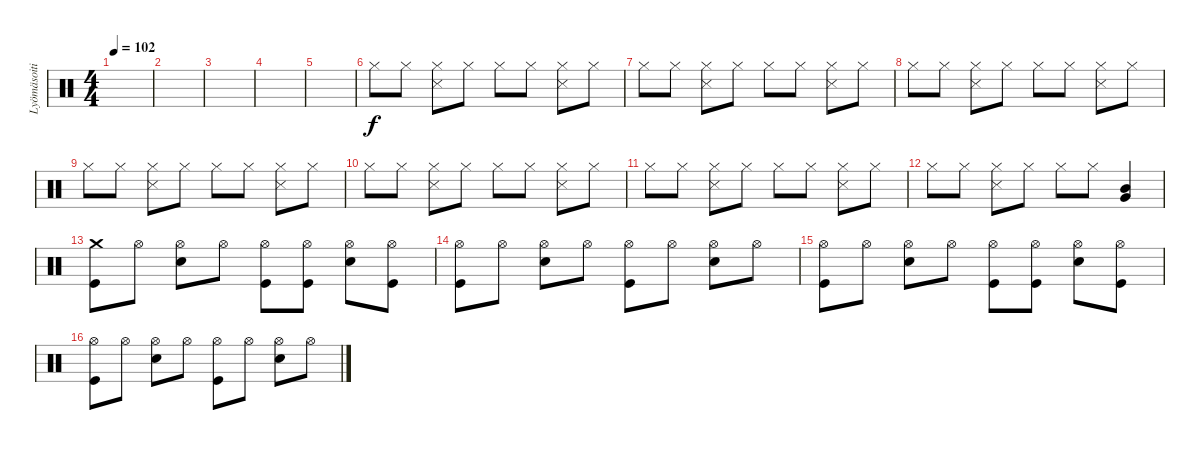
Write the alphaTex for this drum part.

\track ("Lyömäsoitin" "Lyömäsoiti") {instrument percussion}
\staff {score}
\articulation defaults
\ts (4 4)
\tempo 102
\clef neutral
\ks c
|
|
|
|
|
"Hi-Hat (closed)".8 "Hi-Hat (closed)".8 ("Hi-Hat (closed)" "Snare (side stick) 3").8 "Hi-Hat (closed)".8 "Hi-Hat (closed)".8 "Hi-Hat (closed)".8 ("Hi-Hat (closed)" "Snare (side stick) 3").8 "Hi-Hat (closed)".8 |
"Hi-Hat (closed)".8 "Hi-Hat (closed)".8 ("Hi-Hat (closed)" "Snare (side stick) 3").8 "Hi-Hat (closed)".8 "Hi-Hat (closed)".8 "Hi-Hat (closed)".8 ("Hi-Hat (closed)" "Snare (side stick) 3").8 "Hi-Hat (closed)".8 |
"Hi-Hat (closed)".8 "Hi-Hat (closed)".8 ("Hi-Hat (closed)" "Snare (side stick) 3").8 "Hi-Hat (closed)".8 "Hi-Hat (closed)".8 "Hi-Hat (closed)".8 ("Hi-Hat (closed)" "Snare (side stick) 3").8 "Hi-Hat (closed)".8 |
"Hi-Hat (closed)".8 "Hi-Hat (closed)".8 ("Hi-Hat (closed)" "Snare (side stick) 3").8 "Hi-Hat (closed)".8 "Hi-Hat (closed)".8 "Hi-Hat (closed)".8 ("Hi-Hat (closed)" "Snare (side stick) 3").8 "Hi-Hat (closed)".8 |
"Hi-Hat (closed)".8 "Hi-Hat (closed)".8 ("Hi-Hat (closed)" "Snare (side stick) 3").8 "Hi-Hat (closed)".8 "Hi-Hat (closed)".8 "Hi-Hat (closed)".8 ("Hi-Hat (closed)" "Snare (side stick) 3").8 "Hi-Hat (closed)".8 |
"Hi-Hat (closed)".8 "Hi-Hat (closed)".8 ("Hi-Hat (closed)" "Snare (side stick) 3").8 "Hi-Hat (closed)".8 "Hi-Hat (closed)".8 "Hi-Hat (closed)".8 ("Hi-Hat (closed)" "Snare (side stick) 3").8 "Hi-Hat (closed)".8 |
"Hi-Hat (closed)".8 "Hi-Hat (closed)".8 ("Hi-Hat (closed)" "Snare (side stick) 3").8 "Hi-Hat (closed)".8 "Hi-Hat (closed)".8 "Hi-Hat (closed)".8 ("Mid Tom (hit)" "Very Low Tom (hit)").4 |
("Crash medium (hit)" "Kick (hit)").8 "Hi-Hat (open)".8 ("Hi-Hat (open)" "Snare (hit) 2").8 "Hi-Hat (open)".8 ("Hi-Hat (open)" "Kick (hit)").8 ("Hi-Hat (open)" "Kick (hit)").8 ("Hi-Hat (open)" "Snare (hit) 2").8 ("Hi-Hat (open)" "Kick (hit)").8 |
("Hi-Hat (open)" "Kick (hit)").8 "Hi-Hat (open)".8 ("Hi-Hat (open)" "Snare (hit) 2").8 "Hi-Hat (open)".8 ("Hi-Hat (open)" "Kick (hit)").8 "Hi-Hat (open)".8 ("Hi-Hat (open)" "Snare (hit) 2").8 "Hi-Hat (open)".8 |
("Hi-Hat (open)" "Kick (hit)").8 "Hi-Hat (open)".8 ("Hi-Hat (open)" "Snare (hit) 2").8 "Hi-Hat (open)".8 ("Hi-Hat (open)" "Kick (hit)").8 ("Hi-Hat (open)" "Kick (hit)").8 ("Hi-Hat (open)" "Snare (hit) 2").8 ("Hi-Hat (open)" "Kick (hit)").8 |
("Hi-Hat (open)" "Kick (hit)").8 "Hi-Hat (open)".8 ("Hi-Hat (open)" "Snare (hit) 2").8 "Hi-Hat (open)".8 ("Hi-Hat (open)" "Kick (hit)").8 "Hi-Hat (open)".8 ("Hi-Hat (open)" "Snare (hit) 2").8 "Hi-Hat (open)".8
